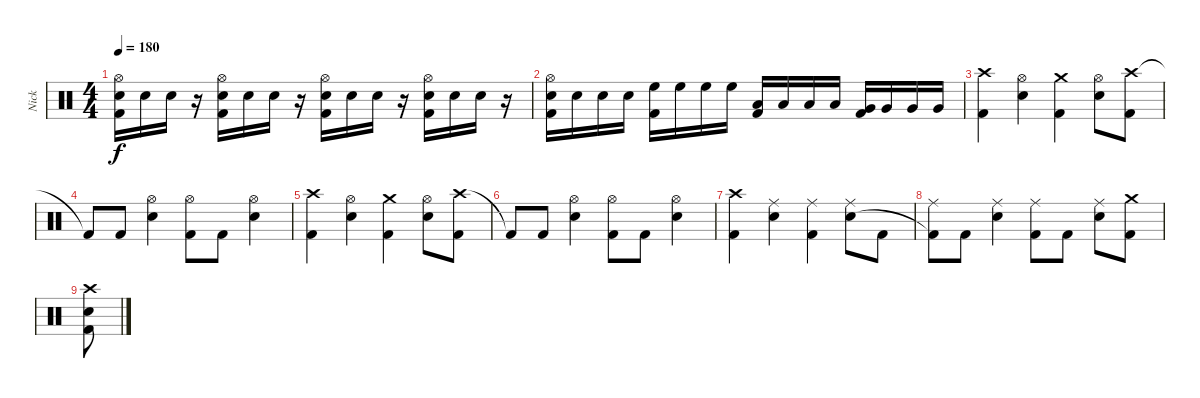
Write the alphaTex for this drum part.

\track ("Nick" "Nick") {instrument percussion}
\staff {score}
\articulation defaults
\ts (4 4)
\tempo 180
\clef neutral
\ks c
("Hi-Hat (open)" "Snare (hit) 2" "Kick (hit) 2").16{dy f} "Snare (hit) 2".16 "Snare (hit) 2".16 r.16 ("Hi-Hat (open)" "Snare (hit) 2" "Kick (hit) 2").16 "Snare (hit) 2".16 "Snare (hit) 2".16 r.16 ("Hi-Hat (open)" "Snare (hit) 2" "Kick (hit) 2").16 "Snare (hit) 2".16 "Snare (hit) 2".16 r.16 ("Hi-Hat (open)" "Snare (hit) 2" "Kick (hit) 2").16 "Snare (hit) 2".16 "Snare (hit) 2".16 r.16 |
("Hi-Hat (open)" "Snare (hit) 2" "Kick (hit) 2").16 "Snare (hit) 2".16 "Snare (hit) 2".16 "Snare (hit) 2".16 ("High Floor Tom (hit)" "Kick (hit) 2").16 "High Floor Tom (hit)".16 "High Floor Tom (hit)".16 "High Floor Tom (hit)".16 ("Low Tom (hit)" "Kick (hit) 2").16 "Low Tom (hit)".16 "Low Tom (hit)".16 "Low Tom (hit)".16 ("Very Low Tom (hit)" "Kick (hit) 2").16 "Very Low Tom (hit)".16 "Very Low Tom (hit)".16 "Very Low Tom (hit)".16 |
("Crash high (hit)" "Kick (hit) 2").4 ("Hi-Hat (open)" "Snare (hit) 2").4 ("Crash medium (hit)" "Kick (hit) 2").4 ("Hi-Hat (open)" "Snare (hit) 2").8 ("Crash high (hit)" "Kick (hit) 2").8 |
"Kick (hit) 2"{t}.8 "Kick (hit) 2".8 ("Hi-Hat (open)" "Snare (hit) 2").4 ("Hi-Hat (open)" "Kick (hit) 2").8 "Kick (hit) 2".8 ("Hi-Hat (open)" "Snare (hit) 2").4 |
("Crash high (hit)" "Kick (hit) 2").4 ("Hi-Hat (open)" "Snare (hit) 2").4 ("Crash medium (hit)" "Kick (hit) 2").4 ("Hi-Hat (open)" "Snare (hit) 2").8 ("Crash high (hit)" "Kick (hit) 2").8 |
"Kick (hit) 2"{t}.8 "Kick (hit) 2".8 ("Hi-Hat (open)" "Snare (hit) 2").4 ("Hi-Hat (open)" "Kick (hit) 2").8 "Kick (hit) 2".8 ("Hi-Hat (open)" "Snare (hit) 2").4 |
("Crash high (hit)" "Kick (hit) 2").4 ("Ride (middle)" "Snare (hit) 2").4 ("Ride (middle)" "Kick (hit) 2").4 ("Ride (middle)" "Snare (hit) 2").8 "Kick (hit) 2".8 |
("Ride (middle)" "Kick (hit) 2"{t}).8 "Kick (hit) 2".8 ("Ride (middle)" "Snare (hit) 2").4 ("Ride (middle)" "Kick (hit) 2").8 "Kick (hit) 2".8 ("Ride (middle)" "Snare (hit) 2").8 ("Crash medium (hit)" "Kick (hit) 2").8 |
("Crash high (hit)" "Snare (hit) 2" "Kick (hit) 2").8
